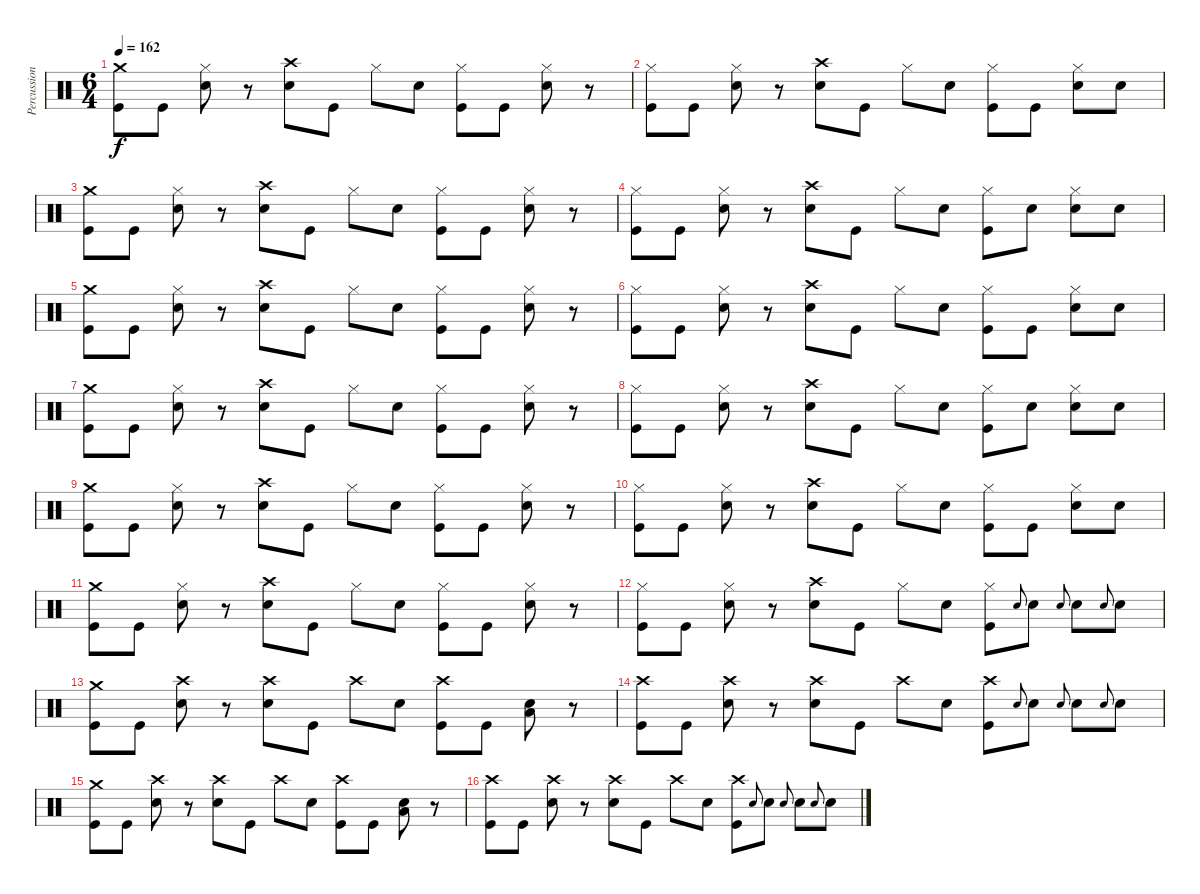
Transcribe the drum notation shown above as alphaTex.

\track ("Percussion" "Percussion") {instrument percussion}
\staff {score}
\articulation defaults
\ts (6 4)
\tempo 162
\clef neutral
\ks c
("Crash medium (hit)" "Kick (hit)").8{dy f} "Kick (hit)".8 ("Hi-Hat (closed)" "Snare (hit) 2").8 r.8 ("Crash high (hit)" "Snare (hit) 2").8 "Kick (hit)".8 "Hi-Hat (closed)".8 "Snare (hit) 2".8 ("Hi-Hat (closed)" "Kick (hit)").8 "Kick (hit)".8 ("Hi-Hat (closed)" "Snare (hit) 2").8 r.8 |
("Hi-Hat (closed)" "Kick (hit)").8 "Kick (hit)".8 ("Hi-Hat (closed)" "Snare (hit) 2").8 r.8 ("Crash high (hit)" "Snare (hit) 2").8 "Kick (hit)".8 "Hi-Hat (closed)".8 "Snare (hit) 2".8 ("Hi-Hat (closed)" "Kick (hit)").8 "Kick (hit)".8 ("Hi-Hat (closed)" "Snare (hit) 2").8 "Snare (hit) 2".8 |
("Crash medium (hit)" "Kick (hit)").8 "Kick (hit)".8 ("Hi-Hat (closed)" "Snare (hit) 2").8 r.8 ("Crash high (hit)" "Snare (hit) 2").8 "Kick (hit)".8 "Hi-Hat (closed)".8 "Snare (hit) 2".8 ("Hi-Hat (closed)" "Kick (hit)").8 "Kick (hit)".8 ("Hi-Hat (closed)" "Snare (hit) 2").8 r.8 |
("Hi-Hat (closed)" "Kick (hit)").8 "Kick (hit)".8 ("Hi-Hat (closed)" "Snare (hit) 2").8 r.8 ("Crash high (hit)" "Snare (hit) 2").8 "Kick (hit)".8 "Hi-Hat (closed)".8 "Snare (hit) 2".8 ("Hi-Hat (closed)" "Kick (hit)").8 "Snare (hit) 2".8 ("Hi-Hat (closed)" "Snare (hit) 2").8 "Snare (hit) 2".8 |
("Crash medium (hit)" "Kick (hit)").8 "Kick (hit)".8 ("Hi-Hat (closed)" "Snare (hit) 2").8 r.8 ("Crash high (hit)" "Snare (hit) 2").8 "Kick (hit)".8 "Hi-Hat (closed)".8 "Snare (hit) 2".8 ("Hi-Hat (closed)" "Kick (hit)").8 "Kick (hit)".8 ("Hi-Hat (closed)" "Snare (hit) 2").8 r.8 |
("Hi-Hat (closed)" "Kick (hit)").8 "Kick (hit)".8 ("Hi-Hat (closed)" "Snare (hit) 2").8 r.8 ("Crash high (hit)" "Snare (hit) 2").8 "Kick (hit)".8 "Hi-Hat (closed)".8 "Snare (hit) 2".8 ("Hi-Hat (closed)" "Kick (hit)").8 "Kick (hit)".8 ("Hi-Hat (closed)" "Snare (hit) 2").8 "Snare (hit) 2".8 |
("Crash medium (hit)" "Kick (hit)").8 "Kick (hit)".8 ("Hi-Hat (closed)" "Snare (hit) 2").8 r.8 ("Crash high (hit)" "Snare (hit) 2").8 "Kick (hit)".8 "Hi-Hat (closed)".8 "Snare (hit) 2".8 ("Hi-Hat (closed)" "Kick (hit)").8 "Kick (hit)".8 ("Hi-Hat (closed)" "Snare (hit) 2").8 r.8 |
("Hi-Hat (closed)" "Kick (hit)").8 "Kick (hit)".8 ("Hi-Hat (closed)" "Snare (hit) 2").8 r.8 ("Crash high (hit)" "Snare (hit) 2").8 "Kick (hit)".8 "Hi-Hat (closed)".8 "Snare (hit) 2".8 ("Hi-Hat (closed)" "Kick (hit)").8 "Snare (hit) 2".8 ("Hi-Hat (closed)" "Snare (hit) 2").8 "Snare (hit) 2".8 |
("Crash medium (hit)" "Kick (hit)").8 "Kick (hit)".8 ("Hi-Hat (closed)" "Snare (hit) 2").8 r.8 ("Crash high (hit)" "Snare (hit) 2").8 "Kick (hit)".8 "Hi-Hat (closed)".8 "Snare (hit) 2".8 ("Hi-Hat (closed)" "Kick (hit)").8 "Kick (hit)".8 ("Hi-Hat (closed)" "Snare (hit) 2").8 r.8 |
("Hi-Hat (closed)" "Kick (hit)").8 "Kick (hit)".8 ("Hi-Hat (closed)" "Snare (hit) 2").8 r.8 ("Crash high (hit)" "Snare (hit) 2").8 "Kick (hit)".8 "Hi-Hat (closed)".8 "Snare (hit) 2".8 ("Hi-Hat (closed)" "Kick (hit)").8 "Kick (hit)".8 ("Hi-Hat (closed)" "Snare (hit) 2").8 "Snare (hit) 2".8 |
("Crash medium (hit)" "Kick (hit)").8 "Kick (hit)".8 ("Hi-Hat (closed)" "Snare (hit) 2").8 r.8 ("Crash high (hit)" "Snare (hit) 2").8 "Kick (hit)".8 "Hi-Hat (closed)".8 "Snare (hit) 2".8 ("Hi-Hat (closed)" "Kick (hit)").8 "Kick (hit)".8 ("Hi-Hat (closed)" "Snare (hit) 2").8 r.8 |
("Hi-Hat (closed)" "Kick (hit)").8 "Kick (hit)".8 ("Hi-Hat (closed)" "Snare (hit) 2").8 r.8 ("Crash high (hit)" "Snare (hit) 2").8 "Kick (hit)".8 "Hi-Hat (closed)".8 "Snare (hit) 2".8 ("Hi-Hat (closed)" "Kick (hit)").8 "Snare (hit) 2".8{gr onbeat} "Snare (hit) 2".8 "Snare (hit) 2".8{gr onbeat} "Snare (hit) 2".8 "Snare (hit) 2".8{gr onbeat} "Snare (hit) 2".8 |
("Crash medium (hit)" "Kick (hit)").8 "Kick (hit)".8 ("Crash high (hit)" "Snare (hit) 2").8 r.8 ("Crash high (hit)" "Snare (hit) 2").8 "Kick (hit)".8 "Crash high (hit)".8 "Snare (hit) 2".8 ("Crash high (hit)" "Kick (hit)").8 "Kick (hit)".8 ("Low Floor Tom (hit)" "Snare (hit) 2").8 r.8 |
("Crash high (hit)" "Kick (hit)").8 "Kick (hit)".8 ("Crash high (hit)" "Snare (hit) 2").8 r.8 ("Crash high (hit)" "Snare (hit) 2").8 "Kick (hit)".8 "Crash high (hit)".8 "Snare (hit) 2".8 ("Crash high (hit)" "Kick (hit)").8 "Snare (hit) 2".8{gr onbeat} "Snare (hit) 2".8 "Snare (hit) 2".8{gr onbeat} "Snare (hit) 2".8 "Snare (hit) 2".8{gr onbeat} "Snare (hit) 2".8 |
("Crash medium (hit)" "Kick (hit)").8 "Kick (hit)".8 ("Crash high (hit)" "Snare (hit) 2").8 r.8 ("Crash high (hit)" "Snare (hit) 2").8 "Kick (hit)".8 "Crash high (hit)".8 "Snare (hit) 2".8 ("Crash high (hit)" "Kick (hit)").8 "Kick (hit)".8 ("Low Floor Tom (hit)" "Snare (hit) 2").8 r.8 |
("Crash high (hit)" "Kick (hit)").8 "Kick (hit)".8 ("Crash high (hit)" "Snare (hit) 2").8 r.8 ("Crash high (hit)" "Snare (hit) 2").8 "Kick (hit)".8 "Crash high (hit)".8 "Snare (hit) 2".8 ("Crash high (hit)" "Kick (hit)").8 "Snare (hit) 2".8{gr onbeat} "Snare (hit) 2".8 "Snare (hit) 2".8{gr onbeat} "Snare (hit) 2".8 "Snare (hit) 2".8{gr onbeat} "Snare (hit) 2".8
